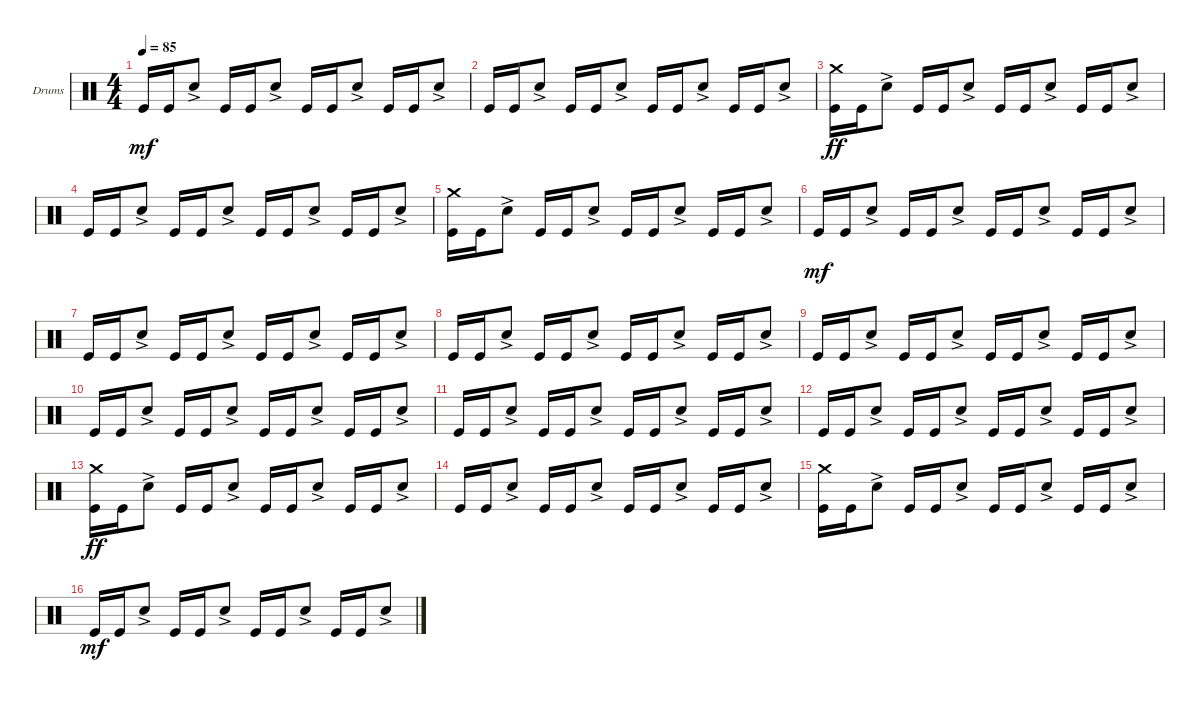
\defaultSystemsLayout 4
\bracketExtendMode groupsimilarinstruments
\firstSystemTrackNameOrientation horizontal
\otherSystemsTrackNameOrientation horizontal
\track ("Drumkit" "Drums") {instrument percussion}
\staff {score}
\articulation defaults
\ts (4 4)
\tempo 85
\clef neutral
\ks c "Kick (hit)".16{dy mf} "Kick (hit)".16 "Snare (hit) 2"{ac}.8 "Kick (hit)".16 "Kick (hit)".16 "Snare (hit) 2"{ac}.8 "Kick (hit)".16 "Kick (hit)".16 "Snare (hit) 2"{ac}.8 "Kick (hit)".16 "Kick (hit)".16 "Snare (hit) 2"{ac}.8
|
"Kick (hit)".16 "Kick (hit)".16 "Snare (hit) 2"{ac}.8 "Kick (hit)".16 "Kick (hit)".16 "Snare (hit) 2"{ac}.8 "Kick (hit)".16 "Kick (hit)".16 "Snare (hit) 2"{ac}.8 "Kick (hit)".16 "Kick (hit)".16 "Snare (hit) 2"{ac}.8 |
("Kick (hit)" "Crash medium (hit)").16{dy ff} "Kick (hit)".16 "Snare (hit) 2"{ac}.8 "Kick (hit)".16 "Kick (hit)".16 "Snare (hit) 2"{ac}.8 "Kick (hit)".16 "Kick (hit)".16 "Snare (hit) 2"{ac}.8 "Kick (hit)".16 "Kick (hit)".16 "Snare (hit) 2"{ac}.8 |
"Kick (hit)".16 "Kick (hit)".16 "Snare (hit) 2"{ac}.8 "Kick (hit)".16 "Kick (hit)".16 "Snare (hit) 2"{ac}.8 "Kick (hit)".16 "Kick (hit)".16 "Snare (hit) 2"{ac}.8 "Kick (hit)".16 "Kick (hit)".16 "Snare (hit) 2"{ac}.8 |
("Kick (hit)" "Crash medium (hit)").16 "Kick (hit)".16 "Snare (hit) 2"{ac}.8 "Kick (hit)".16 "Kick (hit)".16 "Snare (hit) 2"{ac}.8 "Kick (hit)".16 "Kick (hit)".16 "Snare (hit) 2"{ac}.8 "Kick (hit)".16 "Kick (hit)".16 "Snare (hit) 2"{ac}.8 |
"Kick (hit)".16{dy mf} "Kick (hit)".16 "Snare (hit) 2"{ac}.8 "Kick (hit)".16 "Kick (hit)".16 "Snare (hit) 2"{ac}.8 "Kick (hit)".16 "Kick (hit)".16 "Snare (hit) 2"{ac}.8 "Kick (hit)".16 "Kick (hit)".16 "Snare (hit) 2"{ac}.8 |
"Kick (hit)".16 "Kick (hit)".16 "Snare (hit) 2"{ac}.8 "Kick (hit)".16 "Kick (hit)".16 "Snare (hit) 2"{ac}.8 "Kick (hit)".16 "Kick (hit)".16 "Snare (hit) 2"{ac}.8 "Kick (hit)".16 "Kick (hit)".16 "Snare (hit) 2"{ac}.8 |
"Kick (hit)".16 "Kick (hit)".16 "Snare (hit) 2"{ac}.8 "Kick (hit)".16 "Kick (hit)".16 "Snare (hit) 2"{ac}.8 "Kick (hit)".16 "Kick (hit)".16 "Snare (hit) 2"{ac}.8 "Kick (hit)".16 "Kick (hit)".16 "Snare (hit) 2"{ac}.8 |
"Kick (hit)".16 "Kick (hit)".16 "Snare (hit) 2"{ac}.8 "Kick (hit)".16 "Kick (hit)".16 "Snare (hit) 2"{ac}.8 "Kick (hit)".16 "Kick (hit)".16 "Snare (hit) 2"{ac}.8 "Kick (hit)".16 "Kick (hit)".16 "Snare (hit) 2"{ac}.8 |
"Kick (hit)".16 "Kick (hit)".16 "Snare (hit) 2"{ac}.8 "Kick (hit)".16 "Kick (hit)".16 "Snare (hit) 2"{ac}.8 "Kick (hit)".16 "Kick (hit)".16 "Snare (hit) 2"{ac}.8 "Kick (hit)".16 "Kick (hit)".16 "Snare (hit) 2"{ac}.8 |
"Kick (hit)".16 "Kick (hit)".16 "Snare (hit) 2"{ac}.8 "Kick (hit)".16 "Kick (hit)".16 "Snare (hit) 2"{ac}.8 "Kick (hit)".16 "Kick (hit)".16 "Snare (hit) 2"{ac}.8 "Kick (hit)".16 "Kick (hit)".16 "Snare (hit) 2"{ac}.8 |
"Kick (hit)".16 "Kick (hit)".16 "Snare (hit) 2"{ac}.8 "Kick (hit)".16 "Kick (hit)".16 "Snare (hit) 2"{ac}.8 "Kick (hit)".16 "Kick (hit)".16 "Snare (hit) 2"{ac}.8 "Kick (hit)".16 "Kick (hit)".16 "Snare (hit) 2"{ac}.8 |
("Kick (hit)" "Crash medium (hit)").16{dy ff} "Kick (hit)".16 "Snare (hit) 2"{ac}.8 "Kick (hit)".16 "Kick (hit)".16 "Snare (hit) 2"{ac}.8 "Kick (hit)".16 "Kick (hit)".16 "Snare (hit) 2"{ac}.8 "Kick (hit)".16 "Kick (hit)".16 "Snare (hit) 2"{ac}.8 |
"Kick (hit)".16 "Kick (hit)".16 "Snare (hit) 2"{ac}.8 "Kick (hit)".16 "Kick (hit)".16 "Snare (hit) 2"{ac}.8 "Kick (hit)".16 "Kick (hit)".16 "Snare (hit) 2"{ac}.8 "Kick (hit)".16 "Kick (hit)".16 "Snare (hit) 2"{ac}.8 |
("Kick (hit)" "Crash medium (hit)").16 "Kick (hit)".16 "Snare (hit) 2"{ac}.8 "Kick (hit)".16 "Kick (hit)".16 "Snare (hit) 2"{ac}.8 "Kick (hit)".16 "Kick (hit)".16 "Snare (hit) 2"{ac}.8 "Kick (hit)".16 "Kick (hit)".16 "Snare (hit) 2"{ac}.8 |
"Kick (hit)".16{dy mf} "Kick (hit)".16 "Snare (hit) 2"{ac}.8 "Kick (hit)".16 "Kick (hit)".16 "Snare (hit) 2"{ac}.8 "Kick (hit)".16 "Kick (hit)".16 "Snare (hit) 2"{ac}.8 "Kick (hit)".16 "Kick (hit)".16 "Snare (hit) 2"{ac}.8
